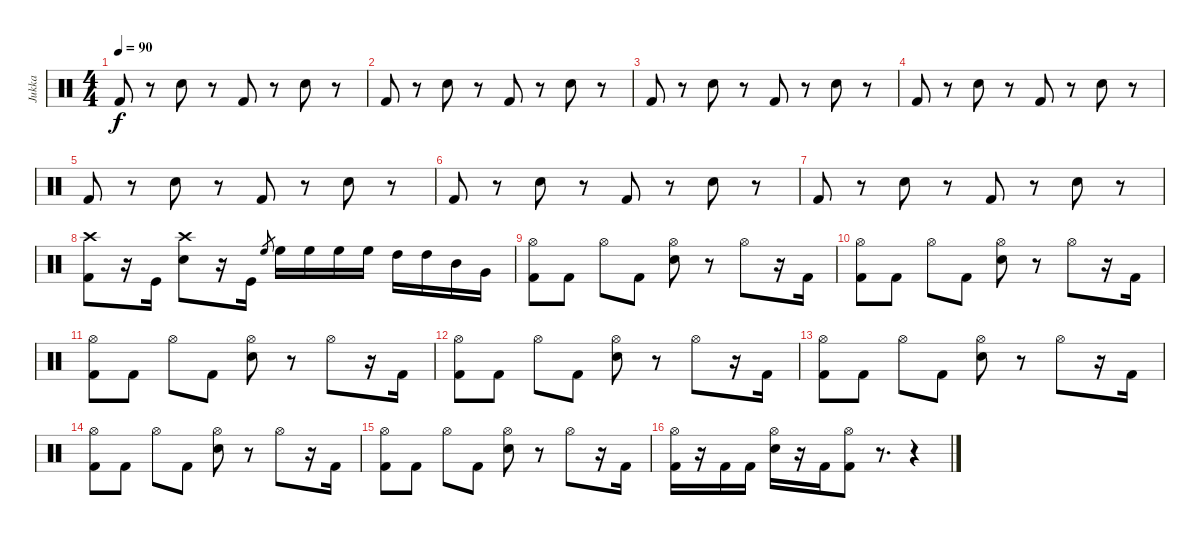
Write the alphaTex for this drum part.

\track ("Jukka" "Jukka") {instrument percussion}
\staff {score}
\articulation defaults
\ts (4 4)
\tempo 90
\clef neutral
\ks c "Kick (hit) 2".8{dy f}
r.8 "Snare (hit) 2".8 r.8 "Kick (hit) 2".8 r.8 "Snare (hit) 2".8 r.8 |
"Kick (hit) 2".8 r.8 "Snare (hit) 2".8 r.8 "Kick (hit) 2".8 r.8 "Snare (hit) 2".8 r.8 |
"Kick (hit) 2".8 r.8 "Snare (hit) 2".8 r.8 "Kick (hit) 2".8 r.8 "Snare (hit) 2".8 r.8 |
"Kick (hit) 2".8 r.8 "Snare (hit) 2".8 r.8 "Kick (hit) 2".8 r.8 "Snare (hit) 2".8 r.8 |
"Kick (hit) 2".8 r.8 "Snare (hit) 2".8 r.8 "Kick (hit) 2".8 r.8 "Snare (hit) 2".8 r.8 |
"Kick (hit) 2".8 r.8 "Snare (hit) 2".8 r.8 "Kick (hit) 2".8 r.8 "Snare (hit) 2".8 r.8 |
"Kick (hit) 2".8 r.8 "Snare (hit) 2".8 r.8 "Kick (hit) 2".8 r.8 "Snare (hit) 2".8 r.8 |
("Crash high (hit)" "Kick (hit) 2").8 r.16 "Kick (hit)".16 ("Snare (hit) 2" "Crash high (hit)").8 r.16 "Kick (hit)".16 "High Floor Tom (hit)".8{gr} "High Floor Tom (hit)".16 "High Floor Tom (hit)".16 "High Floor Tom (hit)".16 "High Floor Tom (hit)".16 "High Tom (hit)".16 "High Tom (hit)".16 "Mid Tom (hit)".16 "Very Low Tom (hit)".16 |
("Hi-Hat (open)" "Kick (hit) 2").8 "Kick (hit) 2".8 "Hi-Hat (open)".8 "Kick (hit) 2".8 ("Snare (hit) 2" "Hi-Hat (open)").8 r.8 "Hi-Hat (open)".8 r.16 "Kick (hit) 2".16 |
("Hi-Hat (open)" "Kick (hit) 2").8 "Kick (hit) 2".8 "Hi-Hat (open)".8 "Kick (hit) 2".8 ("Snare (hit) 2" "Hi-Hat (open)").8 r.8 "Hi-Hat (open)".8 r.16 "Kick (hit) 2".16 |
("Hi-Hat (open)" "Kick (hit) 2").8 "Kick (hit) 2".8 "Hi-Hat (open)".8 "Kick (hit) 2".8 ("Snare (hit) 2" "Hi-Hat (open)").8 r.8 "Hi-Hat (open)".8 r.16 "Kick (hit) 2".16 |
("Hi-Hat (open)" "Kick (hit) 2").8 "Kick (hit) 2".8 "Hi-Hat (open)".8 "Kick (hit) 2".8 ("Snare (hit) 2" "Hi-Hat (open)").8 r.8 "Hi-Hat (open)".8 r.16 "Kick (hit) 2".16 |
("Hi-Hat (open)" "Kick (hit) 2").8 "Kick (hit) 2".8 "Hi-Hat (open)".8 "Kick (hit) 2".8 ("Snare (hit) 2" "Hi-Hat (open)").8 r.8 "Hi-Hat (open)".8 r.16 "Kick (hit) 2".16 |
("Hi-Hat (open)" "Kick (hit) 2").8 "Kick (hit) 2".8 "Hi-Hat (open)".8 "Kick (hit) 2".8 ("Snare (hit) 2" "Hi-Hat (open)").8 r.8 "Hi-Hat (open)".8 r.16 "Kick (hit) 2".16 |
("Hi-Hat (open)" "Kick (hit) 2").8 "Kick (hit) 2".8 "Hi-Hat (open)".8 "Kick (hit) 2".8 ("Snare (hit) 2" "Hi-Hat (open)").8 r.8 "Hi-Hat (open)".8 r.16 "Kick (hit) 2".16 |
("Hi-Hat (open)" "Kick (hit) 2").16 r.16 "Kick (hit) 2".16 "Kick (hit) 2".16 ("Snare (hit) 2" "Hi-Hat (open)").16 r.16 "Kick (hit) 2".16 ("Hi-Hat (open)" "Kick (hit) 2").8 r.8{d} r.4
